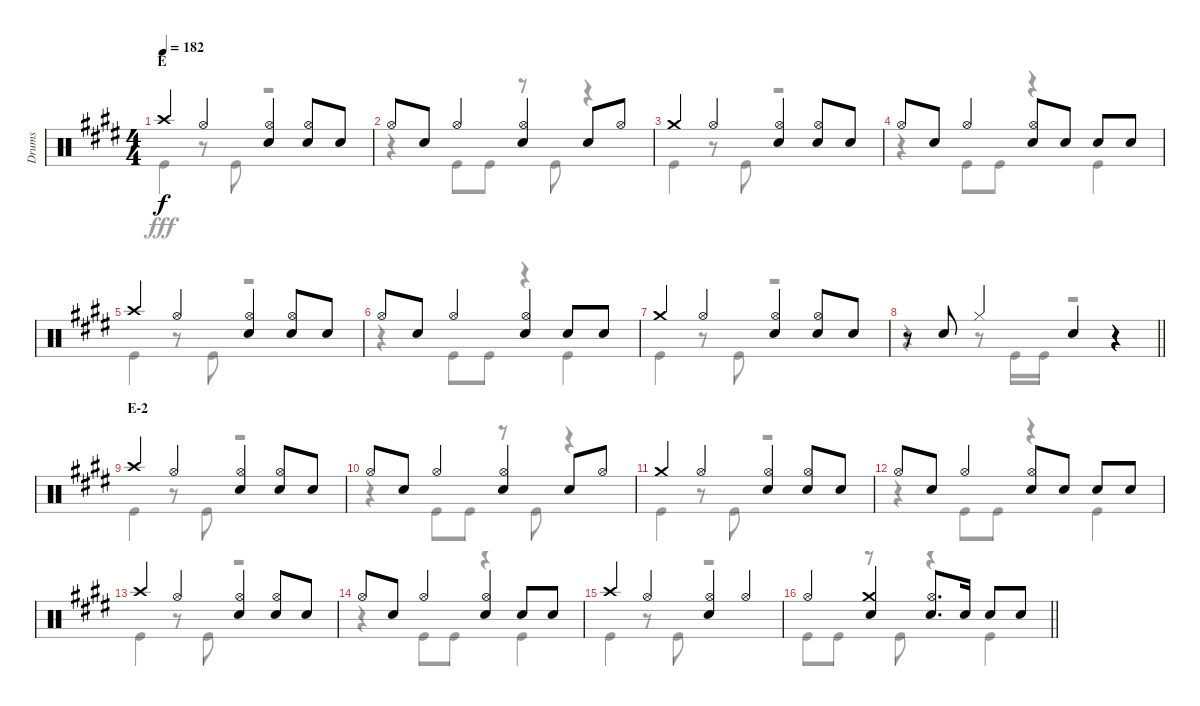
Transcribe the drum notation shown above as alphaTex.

\track ("Drums" "Drums") {instrument percussion}
\staff {score}
\articulation defaults
\voice
\ts (4 4)
\section ("" "E")
\tempo 182
\clef neutral
\ks e "Crash high (hit)".4{dy f} "Hi-Hat (open)".4
("Hi-Hat (open)" "Snare (hit) 2").4 ("Hi-Hat (open)" "Snare (hit) 2").8 "Snare (hit) 2".8 |
"Hi-Hat (open)".8 "Snare (hit) 2".8 "Hi-Hat (open)".4 ("Hi-Hat (open)" "Snare (hit) 2").4 "Snare (hit) 2".8 "Hi-Hat (open)".8 |
"Crash medium (hit)".4 "Hi-Hat (open)".4 ("Hi-Hat (open)" "Snare (hit) 2").4 ("Hi-Hat (open)" "Snare (hit) 2").8 "Snare (hit) 2".8 |
"Hi-Hat (open)".8 "Snare (hit) 2".8 "Hi-Hat (open)".4 ("Hi-Hat (open)" "Snare (hit) 2").8 "Snare (hit) 2".8 "Snare (hit) 2".8 "Snare (hit) 2".8 |
"Crash high (hit)".4 "Hi-Hat (open)".4 ("Hi-Hat (open)" "Snare (hit) 2").4 ("Hi-Hat (open)" "Snare (hit) 2").8 "Snare (hit) 2".8 |
"Hi-Hat (open)".8 "Snare (hit) 2".8 "Hi-Hat (open)".4 ("Hi-Hat (open)" "Snare (hit) 2").4 "Snare (hit) 2".8 "Snare (hit) 2".8 |
"Crash medium (hit)".4 "Hi-Hat (open)".4 ("Hi-Hat (open)" "Snare (hit) 2").4 ("Hi-Hat (open)" "Snare (hit) 2").8 "Snare (hit) 2".8 |
\barLineRight lightlight
r.8 "Snare (hit) 2".8 "Hi-Hat (closed)".4 "Snare (hit) 2".4 r.4 |
\section ("" "E-2")
"Crash high (hit)".4 "Hi-Hat (open)".4 ("Hi-Hat (open)" "Snare (hit) 2").4 ("Hi-Hat (open)" "Snare (hit) 2").8 "Snare (hit) 2".8 |
"Hi-Hat (open)".8 "Snare (hit) 2".8 "Hi-Hat (open)".4 ("Hi-Hat (open)" "Snare (hit) 2").4 "Snare (hit) 2".8 "Hi-Hat (open)".8 |
"Crash medium (hit)".4 "Hi-Hat (open)".4 ("Hi-Hat (open)" "Snare (hit) 2").4 ("Hi-Hat (open)" "Snare (hit) 2").8 "Snare (hit) 2".8 |
"Hi-Hat (open)".8 "Snare (hit) 2".8 "Hi-Hat (open)".4 ("Hi-Hat (open)" "Snare (hit) 2").8 "Snare (hit) 2".8 "Snare (hit) 2".8 "Snare (hit) 2".8 |
"Crash high (hit)".4 "Hi-Hat (open)".4 ("Hi-Hat (open)" "Snare (hit) 2").4 ("Hi-Hat (open)" "Snare (hit) 2").8 "Snare (hit) 2".8 |
"Hi-Hat (open)".8 "Snare (hit) 2".8 "Hi-Hat (open)".4 ("Hi-Hat (open)" "Snare (hit) 2").4 "Snare (hit) 2".8 "Snare (hit) 2".8 |
"Crash high (hit)".4 "Hi-Hat (open)".4 ("Hi-Hat (open)" "Snare (hit) 2").4 "Hi-Hat (open)".4 |
\barLineRight lightlight "Hi-Hat (open)".4
("Crash medium (hit)" "Snare (hit) 2").4 ("Hi-Hat (open)" "Snare (hit) 2").8{d} "Snare (hit) 2".16 "Snare (hit) 2".8 "Snare (hit) 2".8
\voice
\clef neutral
\ottava regular
\simile none
\ks e "Kick (hit)".4{dy fff}
r.8 "Kick (hit)".8 r.2 |
r.4 "Kick (hit)".8 "Kick (hit)".8 r.8 "Kick (hit)".8 r.4 |
"Kick (hit)".4 r.8 "Kick (hit)".8 r.2 |
r.4 "Kick (hit)".8 "Kick (hit)".8 r.4 "Kick (hit)".4 |
"Kick (hit)".4 r.8 "Kick (hit)".8 r.2 |
r.4 "Kick (hit)".8 "Kick (hit)".8 r.4 "Kick (hit)".4 |
"Kick (hit)".4 r.8 "Kick (hit)".8 r.2 |
\barLineRight lightlight
r.4 r.8 "Kick (hit)".16 "Kick (hit)".16 r.2 |
"Kick (hit)".4 r.8 "Kick (hit)".8 r.2 |
r.4 "Kick (hit)".8 "Kick (hit)".8 r.8 "Kick (hit)".8 r.4 |
"Kick (hit)".4 r.8 "Kick (hit)".8 r.2 |
r.4 "Kick (hit)".8 "Kick (hit)".8 r.4 "Kick (hit)".4 |
"Kick (hit)".4 r.8 "Kick (hit)".8 r.2 |
r.4 "Kick (hit)".8 "Kick (hit)".8 r.4 "Kick (hit)".4 |
"Kick (hit)".4 r.8 "Kick (hit)".8 r.2 |
\barLineRight lightlight "Kick (hit)".8 "Kick (hit)".8
r.8 "Kick (hit)".8 r.4 "Kick (hit)".4
